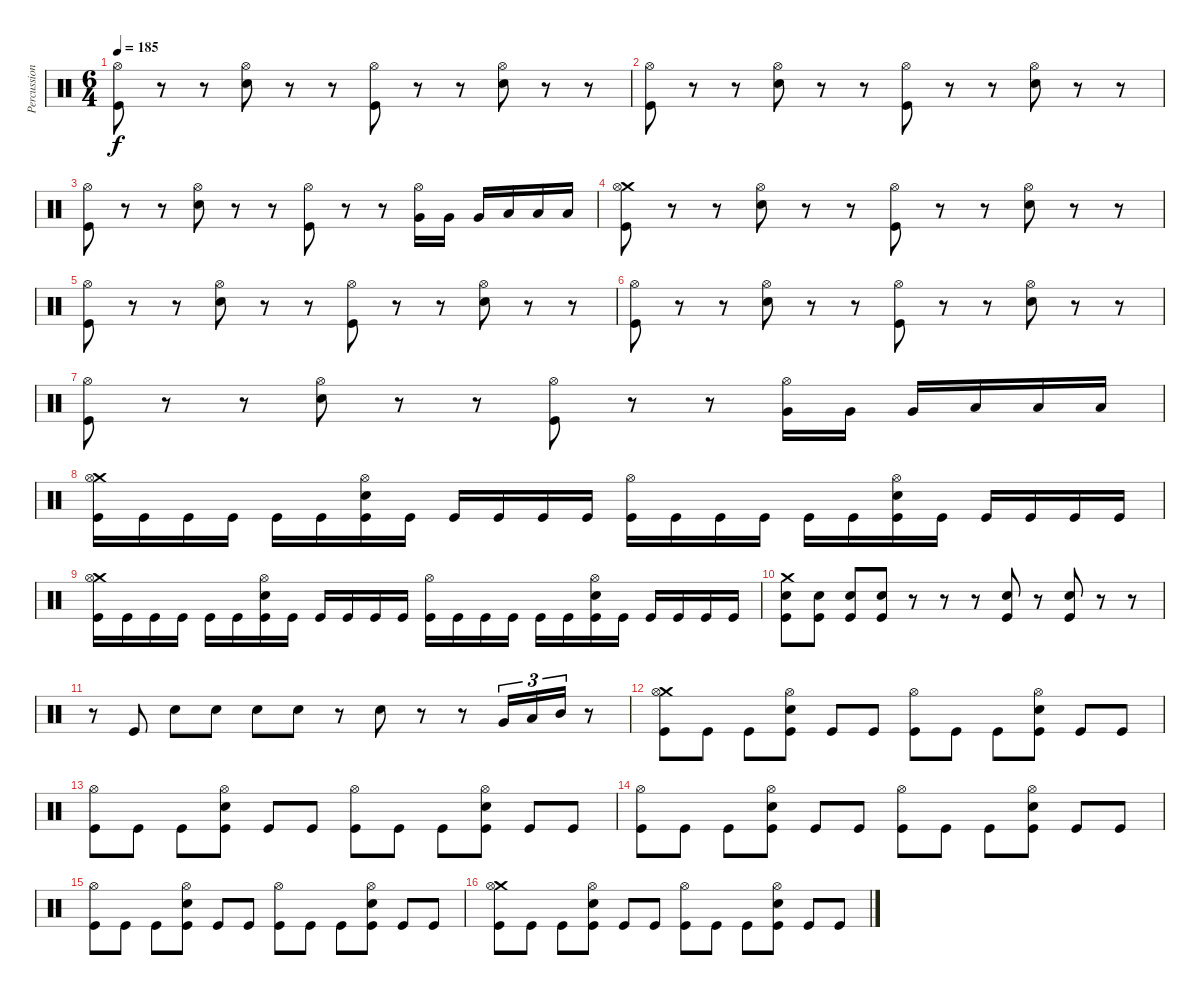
\track ("Percussion" "Percussion") {instrument percussion}
\staff {score}
\articulation defaults
\ts (6 4)
\tempo 185
\clef neutral
\ks c
("Hi-Hat (open)" "Kick (hit)").8{dy f} r.8 r.8 ("Electric Snare (hit)" "Hi-Hat (open)").8 r.8 r.8 ("Hi-Hat (open)" "Kick (hit)").8 r.8 r.8 ("Electric Snare (hit)" "Hi-Hat (open)").8 r.8 r.8 |
("Hi-Hat (open)" "Kick (hit)").8 r.8 r.8 ("Electric Snare (hit)" "Hi-Hat (open)").8 r.8 r.8 ("Hi-Hat (open)" "Kick (hit)").8 r.8 r.8 ("Electric Snare (hit)" "Hi-Hat (open)").8 r.8 r.8 |
("Hi-Hat (open)" "Kick (hit)").8 r.8 r.8 ("Electric Snare (hit)" "Hi-Hat (open)").8 r.8 r.8 ("Hi-Hat (open)" "Kick (hit)").8 r.8 r.8 ("Very Low Tom (hit)" "Hi-Hat (open)").16 "Very Low Tom (hit)".16 "Very Low Tom (hit)".16 "Low Floor Tom (hit)".16 "Low Floor Tom (hit)".16 "Low Floor Tom (hit)".16 |
("Crash medium (hit)" "Hi-Hat (open)" "Kick (hit)").8 r.8 r.8 ("Electric Snare (hit)" "Hi-Hat (open)").8 r.8 r.8 ("Hi-Hat (open)" "Kick (hit)").8 r.8 r.8 ("Electric Snare (hit)" "Hi-Hat (open)").8 r.8 r.8 |
("Hi-Hat (open)" "Kick (hit)").8 r.8 r.8 ("Electric Snare (hit)" "Hi-Hat (open)").8 r.8 r.8 ("Hi-Hat (open)" "Kick (hit)").8 r.8 r.8 ("Electric Snare (hit)" "Hi-Hat (open)").8 r.8 r.8 |
("Hi-Hat (open)" "Kick (hit)").8 r.8 r.8 ("Electric Snare (hit)" "Hi-Hat (open)").8 r.8 r.8 ("Hi-Hat (open)" "Kick (hit)").8 r.8 r.8 ("Electric Snare (hit)" "Hi-Hat (open)").8 r.8 r.8 |
("Hi-Hat (open)" "Kick (hit)").8 r.8 r.8 ("Electric Snare (hit)" "Hi-Hat (open)").8 r.8 r.8 ("Hi-Hat (open)" "Kick (hit)").8 r.8 r.8 ("Very Low Tom (hit)" "Hi-Hat (open)").16 "Very Low Tom (hit)".16 "Very Low Tom (hit)".16 "Low Floor Tom (hit)".16 "Low Floor Tom (hit)".16 "Low Floor Tom (hit)".16 |
("Crash medium (hit)" "Hi-Hat (open)" "Kick (hit)").16 "Kick (hit)".16 "Kick (hit)".16 "Kick (hit)".16 "Kick (hit)".16 "Kick (hit)".16 ("Hi-Hat (open)" "Electric Snare (hit)" "Kick (hit)").16 "Kick (hit)".16 "Kick (hit)".16 "Kick (hit)".16 "Kick (hit)".16 "Kick (hit)".16 ("Hi-Hat (open)" "Kick (hit)").16 "Kick (hit)".16 "Kick (hit)".16 "Kick (hit)".16 "Kick (hit)".16 "Kick (hit)".16 ("Electric Snare (hit)" "Hi-Hat (open)" "Kick (hit)").16 "Kick (hit)".16 "Kick (hit)".16 "Kick (hit)".16 "Kick (hit)".16 "Kick (hit)".16 |
("Crash medium (hit)" "Hi-Hat (open)" "Kick (hit)").16 "Kick (hit)".16 "Kick (hit)".16 "Kick (hit)".16 "Kick (hit)".16 "Kick (hit)".16 ("Hi-Hat (open)" "Electric Snare (hit)" "Kick (hit)").16 "Kick (hit)".16 "Kick (hit)".16 "Kick (hit)".16 "Kick (hit)".16 "Kick (hit)".16 ("Hi-Hat (open)" "Kick (hit)").16 "Kick (hit)".16 "Kick (hit)".16 "Kick (hit)".16 "Kick (hit)".16 "Kick (hit)".16 ("Electric Snare (hit)" "Hi-Hat (open)" "Kick (hit)").16 "Kick (hit)".16 "Kick (hit)".16 "Kick (hit)".16 "Kick (hit)".16 "Kick (hit)".16 |
("Crash medium (hit)" "Electric Snare (hit)" "Kick (hit)").8 ("Electric Snare (hit)" "Kick (hit)").8 ("Electric Snare (hit)" "Kick (hit)").8 ("Electric Snare (hit)" "Kick (hit)").8 r.8 r.8 r.8 ("Electric Snare (hit)" "Kick (hit)").8 r.8 ("Electric Snare (hit)" "Kick (hit)").8 r.8 r.8 |
r.8 "Kick (hit)".8 "Electric Snare (hit)".8 "Electric Snare (hit)".8 "Electric Snare (hit)".8 "Electric Snare (hit)".8 r.8 "Electric Snare (hit)".8 r.8 r.8 "Very Low Tom (hit)".16{tu (3 2)} "Low Tom (hit)".16{tu (3 2)} "Mid Tom (hit)".16{tu (3 2)} r.8 |
("Crash medium (hit)" "Hi-Hat (open)" "Kick (hit)").8 "Kick (hit)".8 "Kick (hit)".8 ("Electric Snare (hit)" "Hi-Hat (open)" "Kick (hit)").8 "Kick (hit)".8 "Kick (hit)".8 ("Hi-Hat (open)" "Kick (hit)").8 "Kick (hit)".8 "Kick (hit)".8 ("Electric Snare (hit)" "Hi-Hat (open)" "Kick (hit)").8 "Kick (hit)".8 "Kick (hit)".8 |
("Hi-Hat (open)" "Kick (hit)").8 "Kick (hit)".8 "Kick (hit)".8 ("Electric Snare (hit)" "Hi-Hat (open)" "Kick (hit)").8 "Kick (hit)".8 "Kick (hit)".8 ("Hi-Hat (open)" "Kick (hit)").8 "Kick (hit)".8 "Kick (hit)".8 ("Electric Snare (hit)" "Hi-Hat (open)" "Kick (hit)").8 "Kick (hit)".8 "Kick (hit)".8 |
("Hi-Hat (open)" "Kick (hit)").8 "Kick (hit)".8 "Kick (hit)".8 ("Electric Snare (hit)" "Hi-Hat (open)" "Kick (hit)").8 "Kick (hit)".8 "Kick (hit)".8 ("Hi-Hat (open)" "Kick (hit)").8 "Kick (hit)".8 "Kick (hit)".8 ("Electric Snare (hit)" "Hi-Hat (open)" "Kick (hit)").8 "Kick (hit)".8 "Kick (hit)".8 |
("Hi-Hat (open)" "Kick (hit)").8 "Kick (hit)".8 "Kick (hit)".8 ("Electric Snare (hit)" "Hi-Hat (open)" "Kick (hit)").8 "Kick (hit)".8 "Kick (hit)".8 ("Hi-Hat (open)" "Kick (hit)").8 "Kick (hit)".8 "Kick (hit)".8 ("Electric Snare (hit)" "Hi-Hat (open)" "Kick (hit)").8 "Kick (hit)".8 "Kick (hit)".8 |
("Crash medium (hit)" "Hi-Hat (open)" "Kick (hit)").8 "Kick (hit)".8 "Kick (hit)".8 ("Electric Snare (hit)" "Hi-Hat (open)" "Kick (hit)").8 "Kick (hit)".8 "Kick (hit)".8 ("Hi-Hat (open)" "Kick (hit)").8 "Kick (hit)".8 "Kick (hit)".8 ("Electric Snare (hit)" "Hi-Hat (open)" "Kick (hit)").8 "Kick (hit)".8 "Kick (hit)".8
